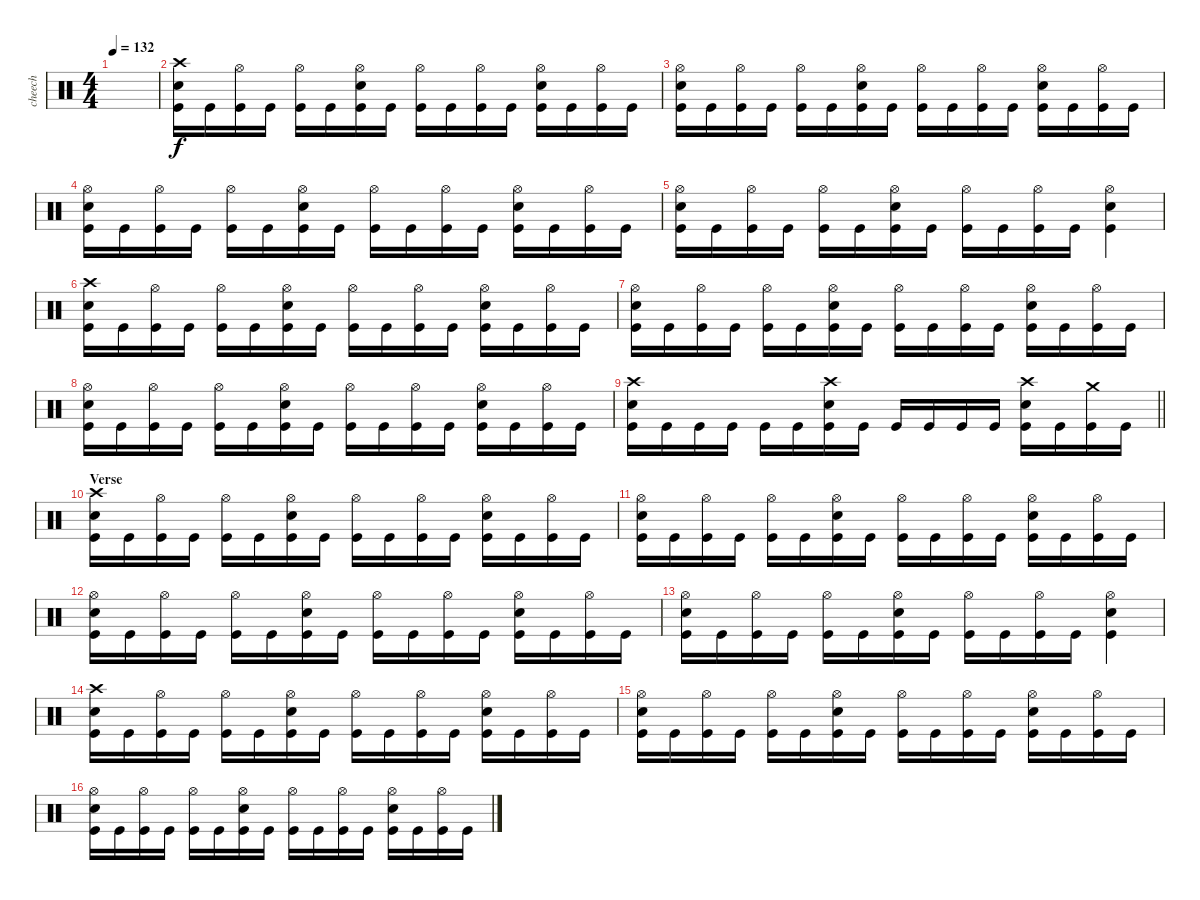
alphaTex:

\track ("cheech" "cheech") {instrument percussion}
\staff {score}
\articulation defaults
\ts (4 4)
\tempo 132
\clef neutral
\ks c
|
("Crash high (hit)" "Electric Snare (hit)" "Kick (hit)").16 "Kick (hit)".16 ("Hi-Hat (open)" "Kick (hit)").16 "Kick (hit)".16 ("Hi-Hat (open)" "Kick (hit)").16 "Kick (hit)".16 ("Hi-Hat (open)" "Electric Snare (hit)" "Kick (hit)").16 "Kick (hit)".16 ("Hi-Hat (open)" "Kick (hit)").16 "Kick (hit)".16 ("Hi-Hat (open)" "Kick (hit)").16 "Kick (hit)".16 ("Hi-Hat (open)" "Electric Snare (hit)" "Kick (hit)").16 "Kick (hit)".16 ("Hi-Hat (open)" "Kick (hit)").16 "Kick (hit)".16 |
("Hi-Hat (open)" "Electric Snare (hit)" "Kick (hit)").16 "Kick (hit)".16 ("Hi-Hat (open)" "Kick (hit)").16 "Kick (hit)".16 ("Hi-Hat (open)" "Kick (hit)").16 "Kick (hit)".16 ("Hi-Hat (open)" "Electric Snare (hit)" "Kick (hit)").16 "Kick (hit)".16 ("Hi-Hat (open)" "Kick (hit)").16 "Kick (hit)".16 ("Hi-Hat (open)" "Kick (hit)").16 "Kick (hit)".16 ("Hi-Hat (open)" "Electric Snare (hit)" "Kick (hit)").16 "Kick (hit)".16 ("Hi-Hat (open)" "Kick (hit)").16 "Kick (hit)".16 |
("Hi-Hat (open)" "Electric Snare (hit)" "Kick (hit)").16 "Kick (hit)".16 ("Hi-Hat (open)" "Kick (hit)").16 "Kick (hit)".16 ("Hi-Hat (open)" "Kick (hit)").16 "Kick (hit)".16 ("Hi-Hat (open)" "Electric Snare (hit)" "Kick (hit)").16 "Kick (hit)".16 ("Hi-Hat (open)" "Kick (hit)").16 "Kick (hit)".16 ("Hi-Hat (open)" "Kick (hit)").16 "Kick (hit)".16 ("Hi-Hat (open)" "Electric Snare (hit)" "Kick (hit)").16 "Kick (hit)".16 ("Hi-Hat (open)" "Kick (hit)").16 "Kick (hit)".16 |
("Hi-Hat (open)" "Electric Snare (hit)" "Kick (hit)").16 "Kick (hit)".16 ("Hi-Hat (open)" "Kick (hit)").16 "Kick (hit)".16 ("Hi-Hat (open)" "Kick (hit)").16 "Kick (hit)".16 ("Hi-Hat (open)" "Electric Snare (hit)" "Kick (hit)").16 "Kick (hit)".16 ("Hi-Hat (open)" "Kick (hit)").16 "Kick (hit)".16 ("Hi-Hat (open)" "Kick (hit)").16 "Kick (hit)".16 ("Hi-Hat (open)" "Electric Snare (hit)" "Kick (hit)").4 |
("Crash high (hit)" "Electric Snare (hit)" "Kick (hit)").16 "Kick (hit)".16 ("Hi-Hat (open)" "Kick (hit)").16 "Kick (hit)".16 ("Hi-Hat (open)" "Kick (hit)").16 "Kick (hit)".16 ("Hi-Hat (open)" "Electric Snare (hit)" "Kick (hit)").16 "Kick (hit)".16 ("Hi-Hat (open)" "Kick (hit)").16 "Kick (hit)".16 ("Hi-Hat (open)" "Kick (hit)").16 "Kick (hit)".16 ("Hi-Hat (open)" "Electric Snare (hit)" "Kick (hit)").16 "Kick (hit)".16 ("Hi-Hat (open)" "Kick (hit)").16 "Kick (hit)".16 |
("Hi-Hat (open)" "Electric Snare (hit)" "Kick (hit)").16 "Kick (hit)".16 ("Hi-Hat (open)" "Kick (hit)").16 "Kick (hit)".16 ("Hi-Hat (open)" "Kick (hit)").16 "Kick (hit)".16 ("Hi-Hat (open)" "Electric Snare (hit)" "Kick (hit)").16 "Kick (hit)".16 ("Hi-Hat (open)" "Kick (hit)").16 "Kick (hit)".16 ("Hi-Hat (open)" "Kick (hit)").16 "Kick (hit)".16 ("Hi-Hat (open)" "Electric Snare (hit)" "Kick (hit)").16 "Kick (hit)".16 ("Hi-Hat (open)" "Kick (hit)").16 "Kick (hit)".16 |
("Hi-Hat (open)" "Electric Snare (hit)" "Kick (hit)").16 "Kick (hit)".16 ("Hi-Hat (open)" "Kick (hit)").16 "Kick (hit)".16 ("Hi-Hat (open)" "Kick (hit)").16 "Kick (hit)".16 ("Hi-Hat (open)" "Electric Snare (hit)" "Kick (hit)").16 "Kick (hit)".16 ("Hi-Hat (open)" "Kick (hit)").16 "Kick (hit)".16 ("Hi-Hat (open)" "Kick (hit)").16 "Kick (hit)".16 ("Hi-Hat (open)" "Electric Snare (hit)" "Kick (hit)").16 "Kick (hit)".16 ("Hi-Hat (open)" "Kick (hit)").16 "Kick (hit)".16 |
\barLineRight lightlight
("Crash high (hit)" "Electric Snare (hit)" "Kick (hit)").16 "Kick (hit)".16 "Kick (hit)".16 "Kick (hit)".16 "Kick (hit)".16 "Kick (hit)".16 ("Crash high (hit)" "Electric Snare (hit)" "Kick (hit)").16 "Kick (hit)".16 "Kick (hit)".16 "Kick (hit)".16 "Kick (hit)".16 "Kick (hit)".16 ("Crash high (hit)" "Electric Snare (hit)" "Kick (hit)").16 "Kick (hit)".16 ("Crash medium (hit)" "Kick (hit)").16 "Kick (hit)".16 |
\section ("" "Verse")
("Crash high (hit)" "Electric Snare (hit)" "Kick (hit)").16 "Kick (hit)".16 ("Hi-Hat (open)" "Kick (hit)").16 "Kick (hit)".16 ("Hi-Hat (open)" "Kick (hit)").16 "Kick (hit)".16 ("Hi-Hat (open)" "Electric Snare (hit)" "Kick (hit)").16 "Kick (hit)".16 ("Hi-Hat (open)" "Kick (hit)").16 "Kick (hit)".16 ("Hi-Hat (open)" "Kick (hit)").16 "Kick (hit)".16 ("Hi-Hat (open)" "Electric Snare (hit)" "Kick (hit)").16 "Kick (hit)".16 ("Hi-Hat (open)" "Kick (hit)").16 "Kick (hit)".16 |
("Hi-Hat (open)" "Electric Snare (hit)" "Kick (hit)").16 "Kick (hit)".16 ("Hi-Hat (open)" "Kick (hit)").16 "Kick (hit)".16 ("Hi-Hat (open)" "Kick (hit)").16 "Kick (hit)".16 ("Hi-Hat (open)" "Electric Snare (hit)" "Kick (hit)").16 "Kick (hit)".16 ("Hi-Hat (open)" "Kick (hit)").16 "Kick (hit)".16 ("Hi-Hat (open)" "Kick (hit)").16 "Kick (hit)".16 ("Hi-Hat (open)" "Electric Snare (hit)" "Kick (hit)").16 "Kick (hit)".16 ("Hi-Hat (open)" "Kick (hit)").16 "Kick (hit)".16 |
("Hi-Hat (open)" "Electric Snare (hit)" "Kick (hit)").16 "Kick (hit)".16 ("Hi-Hat (open)" "Kick (hit)").16 "Kick (hit)".16 ("Hi-Hat (open)" "Kick (hit)").16 "Kick (hit)".16 ("Hi-Hat (open)" "Electric Snare (hit)" "Kick (hit)").16 "Kick (hit)".16 ("Hi-Hat (open)" "Kick (hit)").16 "Kick (hit)".16 ("Hi-Hat (open)" "Kick (hit)").16 "Kick (hit)".16 ("Hi-Hat (open)" "Electric Snare (hit)" "Kick (hit)").16 "Kick (hit)".16 ("Hi-Hat (open)" "Kick (hit)").16 "Kick (hit)".16 |
("Hi-Hat (open)" "Electric Snare (hit)" "Kick (hit)").16 "Kick (hit)".16 ("Hi-Hat (open)" "Kick (hit)").16 "Kick (hit)".16 ("Hi-Hat (open)" "Kick (hit)").16 "Kick (hit)".16 ("Hi-Hat (open)" "Electric Snare (hit)" "Kick (hit)").16 "Kick (hit)".16 ("Hi-Hat (open)" "Kick (hit)").16 "Kick (hit)".16 ("Hi-Hat (open)" "Kick (hit)").16 "Kick (hit)".16 ("Hi-Hat (open)" "Electric Snare (hit)" "Kick (hit)").4 |
("Crash high (hit)" "Electric Snare (hit)" "Kick (hit)").16 "Kick (hit)".16 ("Hi-Hat (open)" "Kick (hit)").16 "Kick (hit)".16 ("Hi-Hat (open)" "Kick (hit)").16 "Kick (hit)".16 ("Hi-Hat (open)" "Electric Snare (hit)" "Kick (hit)").16 "Kick (hit)".16 ("Hi-Hat (open)" "Kick (hit)").16 "Kick (hit)".16 ("Hi-Hat (open)" "Kick (hit)").16 "Kick (hit)".16 ("Hi-Hat (open)" "Electric Snare (hit)" "Kick (hit)").16 "Kick (hit)".16 ("Hi-Hat (open)" "Kick (hit)").16 "Kick (hit)".16 |
("Hi-Hat (open)" "Electric Snare (hit)" "Kick (hit)").16 "Kick (hit)".16 ("Hi-Hat (open)" "Kick (hit)").16 "Kick (hit)".16 ("Hi-Hat (open)" "Kick (hit)").16 "Kick (hit)".16 ("Hi-Hat (open)" "Electric Snare (hit)" "Kick (hit)").16 "Kick (hit)".16 ("Hi-Hat (open)" "Kick (hit)").16 "Kick (hit)".16 ("Hi-Hat (open)" "Kick (hit)").16 "Kick (hit)".16 ("Hi-Hat (open)" "Electric Snare (hit)" "Kick (hit)").16 "Kick (hit)".16 ("Hi-Hat (open)" "Kick (hit)").16 "Kick (hit)".16 |
("Hi-Hat (open)" "Electric Snare (hit)" "Kick (hit)").16 "Kick (hit)".16 ("Hi-Hat (open)" "Kick (hit)").16 "Kick (hit)".16 ("Hi-Hat (open)" "Kick (hit)").16 "Kick (hit)".16 ("Hi-Hat (open)" "Electric Snare (hit)" "Kick (hit)").16 "Kick (hit)".16 ("Hi-Hat (open)" "Kick (hit)").16 "Kick (hit)".16 ("Hi-Hat (open)" "Kick (hit)").16 "Kick (hit)".16 ("Hi-Hat (open)" "Electric Snare (hit)" "Kick (hit)").16 "Kick (hit)".16 ("Hi-Hat (open)" "Kick (hit)").16 "Kick (hit)".16
